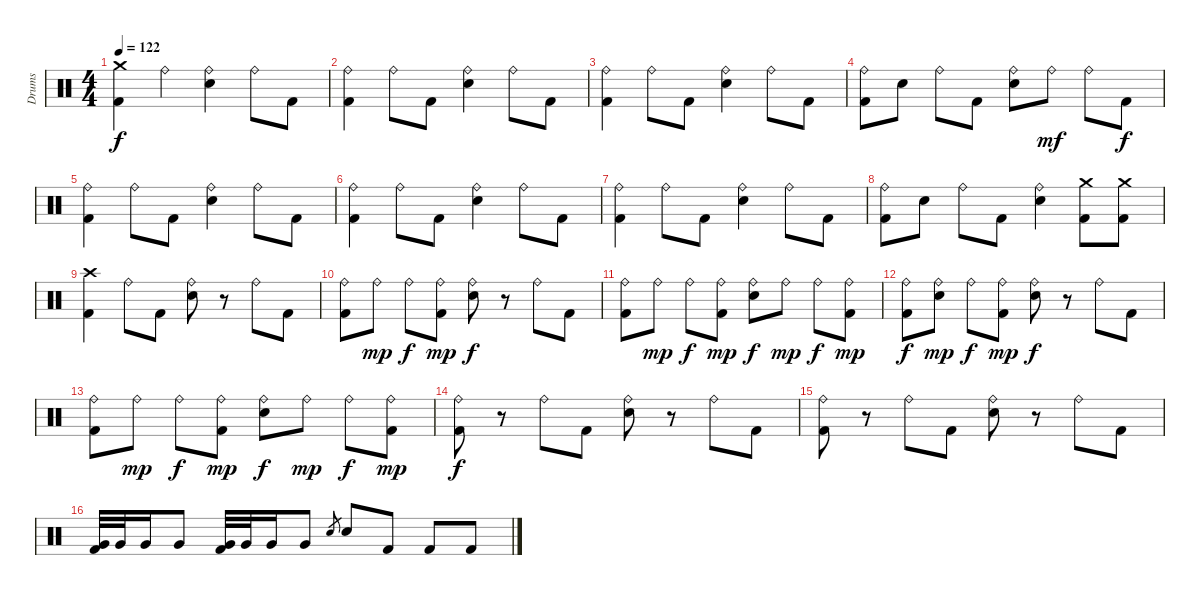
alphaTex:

\track ("Drums" "Drums") {instrument percussion}
\staff {score}
\articulation defaults
\ts (4 4)
\tempo 122
\clef neutral
\ks c
("Crash medium (hit)" "Kick (hit) 2").4{dy f} "Ride (bell)".4 ("Ride (bell)" "Snare (hit) 2").4 "Ride (bell)".8 "Kick (hit) 2".8 |
("Ride (bell)" "Kick (hit) 2").4 "Ride (bell)".8 "Kick (hit) 2".8 ("Ride (bell)" "Snare (hit) 2").4 "Ride (bell)".8 "Kick (hit) 2".8 |
("Ride (bell)" "Kick (hit) 2").4 "Ride (bell)".8 "Kick (hit) 2".8 ("Ride (bell)" "Snare (hit) 2").4 "Ride (bell)".8 "Kick (hit) 2".8 |
("Ride (bell)" "Kick (hit) 2").8 "Snare (hit) 2".8 "Ride (bell)".8 "Kick (hit) 2".8 ("Ride (bell)" "Snare (hit) 2").8 "Ride (bell)".8{dy mf} "Ride (bell)".8 "Kick (hit) 2".8{dy f} |
("Ride (bell)" "Kick (hit) 2").4 "Ride (bell)".8 "Kick (hit) 2".8 ("Ride (bell)" "Snare (hit) 2").4 "Ride (bell)".8 "Kick (hit) 2".8 |
("Ride (bell)" "Kick (hit) 2").4 "Ride (bell)".8 "Kick (hit) 2".8 ("Ride (bell)" "Snare (hit) 2").4 "Ride (bell)".8 "Kick (hit) 2".8 |
("Ride (bell)" "Kick (hit) 2").4 "Ride (bell)".8 "Kick (hit) 2".8 ("Ride (bell)" "Snare (hit) 2").4 "Ride (bell)".8 "Kick (hit) 2".8 |
("Ride (bell)" "Kick (hit) 2").8 "Snare (hit) 2".8 "Ride (bell)".8 "Kick (hit) 2".8 ("Ride (bell)" "Snare (hit) 2").4 ("Crash medium (hit)" "Kick (hit) 2").8 ("Crash medium (hit)" "Kick (hit) 2").8 |
("Crash high (hit)" "Kick (hit) 2").4 "Ride (bell)".8 "Kick (hit) 2".8 ("Ride (bell)" "Snare (hit) 2").8 r.8 "Ride (bell)".8 "Kick (hit) 2".8 |
("Ride (bell)" "Kick (hit) 2").8 "Ride (bell)".8{dy mp} "Ride (bell)".8{dy f} ("Ride (bell)" "Kick (hit) 2").8{dy mp} ("Ride (bell)" "Snare (hit) 2").8{dy f} r.8 "Ride (bell)".8 "Kick (hit) 2".8 |
("Ride (bell)" "Kick (hit) 2").8 "Ride (bell)".8{dy mp} "Ride (bell)".8{dy f} ("Ride (bell)" "Kick (hit) 2").8{dy mp} ("Ride (bell)" "Snare (hit) 2").8{dy f} "Ride (bell)".8{dy mp} "Ride (bell)".8{dy f} ("Ride (bell)" "Kick (hit) 2").8{dy mp} |
("Ride (bell)" "Kick (hit) 2").8{dy f} ("Ride (bell)" "Snare (hit) 2").8{dy mp} "Ride (bell)".8{dy f} ("Ride (bell)" "Kick (hit) 2").8{dy mp} ("Ride (bell)" "Snare (hit) 2").8{dy f} r.8 "Ride (bell)".8 "Kick (hit) 2".8 |
("Ride (bell)" "Kick (hit) 2").8 "Ride (bell)".8{dy mp} "Ride (bell)".8{dy f} ("Ride (bell)" "Kick (hit) 2").8{dy mp} ("Ride (bell)" "Snare (hit) 2").8{dy f} "Ride (bell)".8{dy mp} "Ride (bell)".8{dy f} ("Ride (bell)" "Kick (hit) 2").8{dy mp} |
("Ride (bell)" "Kick (hit) 2").8{dy f} r.8 "Ride (bell)".8 "Kick (hit) 2".8 ("Ride (bell)" "Snare (hit) 2").8 r.8 "Ride (bell)".8 "Kick (hit) 2".8 |
("Ride (bell)" "Kick (hit) 2").8 r.8 "Ride (bell)".8 "Kick (hit) 2".8 ("Ride (bell)" "Snare (hit) 2").8 r.8 "Ride (bell)".8 "Kick (hit) 2".8 |
("Very Low Tom (hit)" "Kick (hit) 2").32 "Very Low Tom (hit)".32 "Very Low Tom (hit)".16 "Very Low Tom (hit)".8 ("Very Low Tom (hit)" "Kick (hit) 2").32 "Very Low Tom (hit)".32 "Very Low Tom (hit)".16 "Very Low Tom (hit)".8 "Snare (hit) 2".8{gr} "Snare (hit) 2".8 "Kick (hit) 2".8 "Kick (hit) 2".8 "Kick (hit) 2".8
